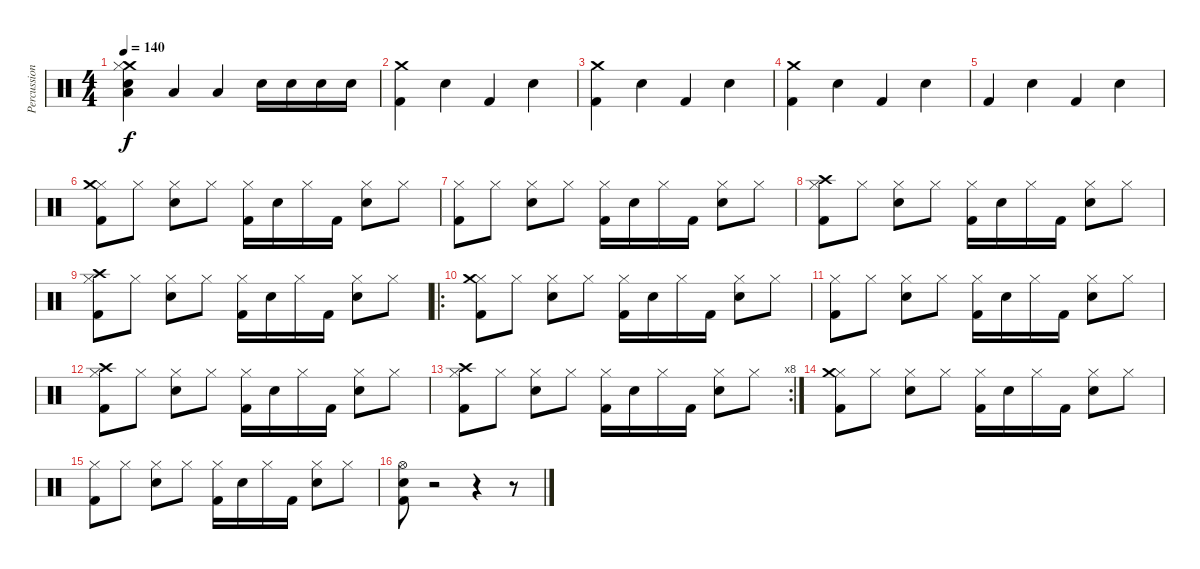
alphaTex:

\track ("Percussions" "Percussion") {instrument percussion}
\staff {score}
\articulation defaults
\ts (4 4)
\tempo 140
\clef neutral
\ks c
("Crash medium (hit)" "Electric Snare (hit)" "Hi-Hat (closed)" "Low Floor Tom (hit)").4{dy f} "Low Floor Tom (hit)".4 "Low Floor Tom (hit)".4 "Electric Snare (hit)".16 "Electric Snare (hit)".16 "Electric Snare (hit)".16 "Electric Snare (hit)".16 |
("Crash medium (hit)" "Kick (hit) 2").4 "Electric Snare (hit)".4 "Kick (hit) 2".4 "Electric Snare (hit)".4 |
("Crash medium (hit)" "Kick (hit) 2").4 "Electric Snare (hit)".4 "Kick (hit) 2".4 "Electric Snare (hit)".4 |
("Crash medium (hit)" "Kick (hit) 2").4 "Electric Snare (hit)".4 "Kick (hit) 2".4 "Electric Snare (hit)".4 |
"Kick (hit) 2".4 "Electric Snare (hit)".4 "Kick (hit) 2".4 "Electric Snare (hit)".4 |
("Hi-Hat (closed)" "Crash medium (hit)" "Kick (hit) 2").8 "Hi-Hat (closed)".8 ("Hi-Hat (closed)" "Electric Snare (hit)").8 "Hi-Hat (closed)".8 ("Hi-Hat (closed)" "Kick (hit) 2").16 "Electric Snare (hit)".16 "Hi-Hat (closed)".16 "Kick (hit) 2".16 ("Hi-Hat (closed)" "Electric Snare (hit)").8 "Hi-Hat (closed)".8 |
("Hi-Hat (closed)" "Kick (hit) 2").8 "Hi-Hat (closed)".8 ("Hi-Hat (closed)" "Electric Snare (hit)").8 "Hi-Hat (closed)".8 ("Hi-Hat (closed)" "Kick (hit) 2").16 "Electric Snare (hit)".16 "Hi-Hat (closed)".16 "Kick (hit) 2".16 ("Hi-Hat (closed)" "Electric Snare (hit)").8 "Hi-Hat (closed)".8 |
("Hi-Hat (closed)" "Crash high (hit)" "Kick (hit) 2").8 "Hi-Hat (closed)".8 ("Hi-Hat (closed)" "Electric Snare (hit)").8 "Hi-Hat (closed)".8 ("Hi-Hat (closed)" "Kick (hit) 2").16 "Electric Snare (hit)".16 "Hi-Hat (closed)".16 "Kick (hit) 2".16 ("Hi-Hat (closed)" "Electric Snare (hit)").8 "Hi-Hat (closed)".8 |
("Hi-Hat (closed)" "Crash high (hit)" "Kick (hit) 2").8 "Hi-Hat (closed)".8 ("Hi-Hat (closed)" "Electric Snare (hit)").8 "Hi-Hat (closed)".8 ("Hi-Hat (closed)" "Kick (hit) 2").16 "Electric Snare (hit)".16 "Hi-Hat (closed)".16 "Kick (hit) 2".16 ("Hi-Hat (closed)" "Electric Snare (hit)").8 "Hi-Hat (closed)".8 |
\ro
("Hi-Hat (closed)" "Crash medium (hit)" "Kick (hit) 2").8 "Hi-Hat (closed)".8 ("Hi-Hat (closed)" "Electric Snare (hit)").8 "Hi-Hat (closed)".8 ("Hi-Hat (closed)" "Kick (hit) 2").16 "Electric Snare (hit)".16 "Hi-Hat (closed)".16 "Kick (hit) 2".16 ("Hi-Hat (closed)" "Electric Snare (hit)").8 "Hi-Hat (closed)".8 |
("Hi-Hat (closed)" "Kick (hit) 2").8 "Hi-Hat (closed)".8 ("Hi-Hat (closed)" "Electric Snare (hit)").8 "Hi-Hat (closed)".8 ("Hi-Hat (closed)" "Kick (hit) 2").16 "Electric Snare (hit)".16 "Hi-Hat (closed)".16 "Kick (hit) 2".16 ("Hi-Hat (closed)" "Electric Snare (hit)").8 "Hi-Hat (closed)".8 |
("Hi-Hat (closed)" "Crash high (hit)" "Kick (hit) 2").8 "Hi-Hat (closed)".8 ("Hi-Hat (closed)" "Electric Snare (hit)").8 "Hi-Hat (closed)".8 ("Hi-Hat (closed)" "Kick (hit) 2").16 "Electric Snare (hit)".16 "Hi-Hat (closed)".16 "Kick (hit) 2".16 ("Hi-Hat (closed)" "Electric Snare (hit)").8 "Hi-Hat (closed)".8 |
\rc 8
("Hi-Hat (closed)" "Crash high (hit)" "Kick (hit) 2").8 "Hi-Hat (closed)".8 ("Hi-Hat (closed)" "Electric Snare (hit)").8 "Hi-Hat (closed)".8 ("Hi-Hat (closed)" "Kick (hit) 2").16 "Electric Snare (hit)".16 "Hi-Hat (closed)".16 "Kick (hit) 2".16 ("Hi-Hat (closed)" "Electric Snare (hit)").8 "Hi-Hat (closed)".8 |
("Hi-Hat (closed)" "Crash medium (hit)" "Kick (hit) 2").8 "Hi-Hat (closed)".8 ("Hi-Hat (closed)" "Electric Snare (hit)").8 "Hi-Hat (closed)".8 ("Hi-Hat (closed)" "Kick (hit) 2").16 "Electric Snare (hit)".16 "Hi-Hat (closed)".16 "Kick (hit) 2".16 ("Hi-Hat (closed)" "Electric Snare (hit)").8 "Hi-Hat (closed)".8 |
("Hi-Hat (closed)" "Kick (hit) 2").8 "Hi-Hat (closed)".8 ("Hi-Hat (closed)" "Electric Snare (hit)").8 "Hi-Hat (closed)".8 ("Hi-Hat (closed)" "Kick (hit) 2").16 "Electric Snare (hit)".16 "Hi-Hat (closed)".16 "Kick (hit) 2".16 ("Hi-Hat (closed)" "Electric Snare (hit)").8 "Hi-Hat (closed)".8 |
("Hi-Hat (open)" "Kick (hit) 2" "Electric Snare (hit)").8 r.2 r.4 r.8
